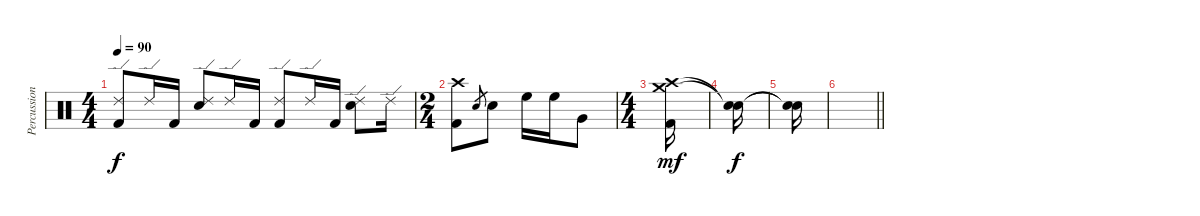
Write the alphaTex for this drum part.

\track ("Percussion" "Percussion") {instrument percussion}
\staff {score}
\articulation defaults
\ts (4 4)
\tempo 90
\clef neutral
\ks c
("Ride (edge) 2" "Kick (hit) 2").8{dy f} "Ride (edge) 2".16 "Kick (hit) 2".16 ("Ride (edge) 2" "Electric Snare (hit)").8 "Ride (edge) 2".16 "Kick (hit) 2".16 ("Ride (edge) 2" "Kick (hit) 2").8 "Ride (edge) 2".16 "Kick (hit) 2".16 ("Ride (edge) 2" "Electric Snare (hit)").8 "Ride (edge) 2".16 |
\ts (2 4)
("Crash high (hit)" "Kick (hit) 2").8 "Electric Snare (hit)".8{gr} "Electric Snare (hit)".8 "High Floor Tom (hit)".16 "High Floor Tom (hit)".16 "Very Low Tom (hit)".8 |
\ts (4 4)
("Crash high (hit)" "Crash medium (hit)" "Kick (hit) 2").16{dy mf} |
("Snare (hit)"{t} "Snare (hit)"{t}).16{dy f} |
("Snare (hit)"{t} "Snare (hit)"{t}).16 |
\barLineRight lightlight
